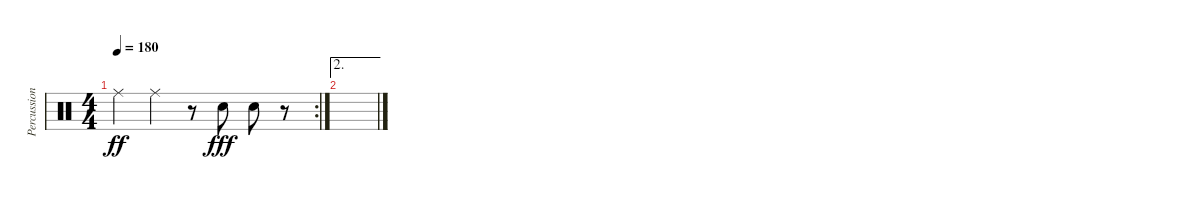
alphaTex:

\track ("Percussions" "Percussion") {instrument percussion}
\staff {score}
\articulation defaults
\rc 2
\ts (4 4)
\tempo 180
\clef neutral
\ks c "Ride (middle)".4{dy ff} "Ride (middle)".4
r.8 "Electric Snare (hit)".8{dy fff} "Electric Snare (hit)".8 r.8 |
\ae 2
